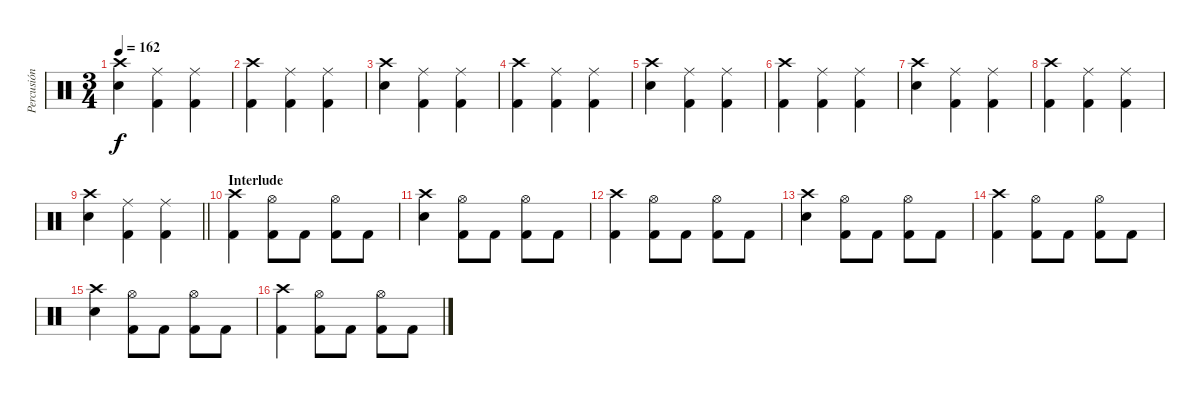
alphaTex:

\track ("Percusión" "Percusión") {instrument percussion}
\staff {score}
\articulation defaults
\ts (3 4)
\tempo 162
\clef neutral
\ks c
("Crash high (hit)" "Electric Snare (hit)").4{dy f} ("Ride (middle)" "Kick (hit) 2").4 ("Ride (middle)" "Kick (hit) 2").4 |
("Crash high (hit)" "Kick (hit) 2").4 ("Ride (middle)" "Kick (hit) 2").4 ("Ride (middle)" "Kick (hit) 2").4 |
("Crash high (hit)" "Electric Snare (hit)").4 ("Ride (middle)" "Kick (hit) 2").4 ("Ride (middle)" "Kick (hit) 2").4 |
("Crash high (hit)" "Kick (hit) 2").4 ("Ride (middle)" "Kick (hit) 2").4 ("Ride (middle)" "Kick (hit) 2").4 |
("Crash high (hit)" "Electric Snare (hit)").4 ("Ride (middle)" "Kick (hit) 2").4 ("Ride (middle)" "Kick (hit) 2").4 |
("Crash high (hit)" "Kick (hit) 2").4 ("Ride (middle)" "Kick (hit) 2").4 ("Ride (middle)" "Kick (hit) 2").4 |
("Crash high (hit)" "Electric Snare (hit)").4 ("Ride (middle)" "Kick (hit) 2").4 ("Ride (middle)" "Kick (hit) 2").4 |
("Crash high (hit)" "Kick (hit) 2").4 ("Ride (middle)" "Kick (hit) 2").4 ("Ride (middle)" "Kick (hit) 2").4 |
\barLineRight lightlight
("Crash high (hit)" "Electric Snare (hit)").4 ("Ride (middle)" "Kick (hit) 2").4 ("Ride (middle)" "Kick (hit) 2").4 |
\section ("" "Interlude")
("Crash high (hit)" "Kick (hit) 2").4 ("Hi-Hat (open)" "Kick (hit) 2").8 "Kick (hit) 2".8 ("Hi-Hat (open)" "Kick (hit) 2").8 "Kick (hit) 2".8 |
("Crash high (hit)" "Electric Snare (hit)").4 ("Hi-Hat (open)" "Kick (hit) 2").8 "Kick (hit) 2".8 ("Hi-Hat (open)" "Kick (hit) 2").8 "Kick (hit) 2".8 |
("Crash high (hit)" "Kick (hit) 2").4 ("Hi-Hat (open)" "Kick (hit) 2").8 "Kick (hit) 2".8 ("Hi-Hat (open)" "Kick (hit) 2").8 "Kick (hit) 2".8 |
("Crash high (hit)" "Electric Snare (hit)").4 ("Hi-Hat (open)" "Kick (hit) 2").8 "Kick (hit) 2".8 ("Hi-Hat (open)" "Kick (hit) 2").8 "Kick (hit) 2".8 |
("Crash high (hit)" "Kick (hit) 2").4 ("Hi-Hat (open)" "Kick (hit) 2").8 "Kick (hit) 2".8 ("Hi-Hat (open)" "Kick (hit) 2").8 "Kick (hit) 2".8 |
("Crash high (hit)" "Electric Snare (hit)").4 ("Hi-Hat (open)" "Kick (hit) 2").8 "Kick (hit) 2".8 ("Hi-Hat (open)" "Kick (hit) 2").8 "Kick (hit) 2".8 |
("Crash high (hit)" "Kick (hit) 2").4 ("Hi-Hat (open)" "Kick (hit) 2").8 "Kick (hit) 2".8 ("Hi-Hat (open)" "Kick (hit) 2").8 "Kick (hit) 2".8
